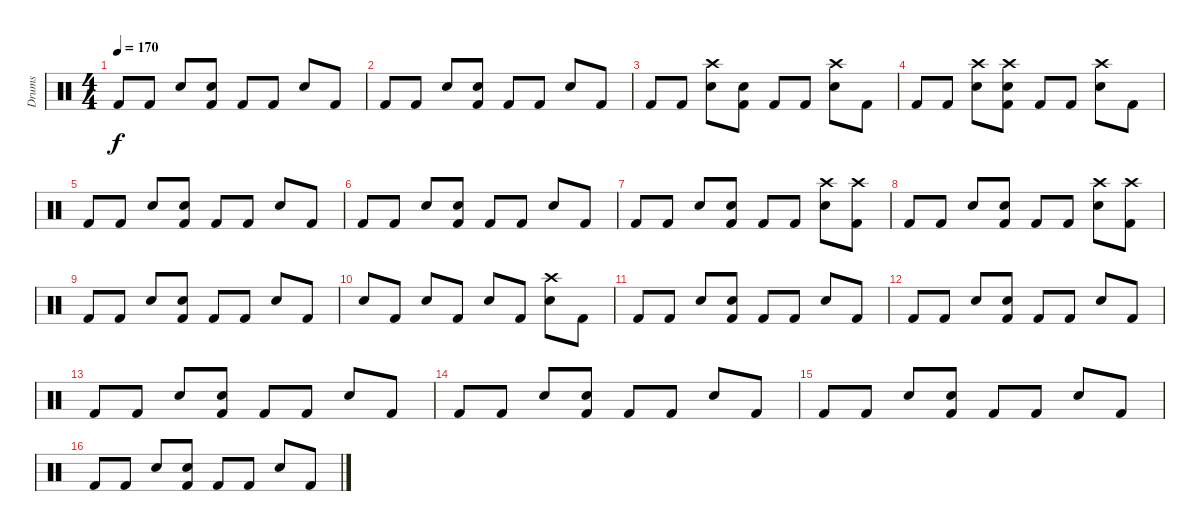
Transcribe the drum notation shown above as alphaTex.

\track ("Drums" "Drums") {instrument percussion}
\staff {score}
\articulation defaults
\ts (4 4)
\tempo 170
\clef neutral
\ks c "Kick (hit) 2".8{dy f} "Kick (hit) 2".8 "Snare (hit) 2".8
("Electric Snare (hit)" "Kick (hit) 2").8 "Kick (hit) 2".8 "Kick (hit) 2".8 "Snare (hit) 2".8 "Kick (hit) 2".8 |
"Kick (hit) 2".8 "Kick (hit) 2".8 "Snare (hit) 2".8 ("Electric Snare (hit)" "Kick (hit) 2").8 "Kick (hit) 2".8 "Kick (hit) 2".8 "Snare (hit) 2".8 "Kick (hit) 2".8 |
"Kick (hit) 2".8 "Kick (hit) 2".8 ("Snare (hit) 2" "Crash high (hit)").8 ("Electric Snare (hit)" "Kick (hit) 2").8 "Kick (hit) 2".8 "Kick (hit) 2".8 ("Snare (hit) 2" "Crash high (hit)").8 "Kick (hit) 2".8 |
"Kick (hit) 2".8 "Kick (hit) 2".8 ("Snare (hit) 2" "Crash high (hit)").8 ("Electric Snare (hit)" "Crash high (hit)" "Kick (hit) 2").8 "Kick (hit) 2".8 "Kick (hit) 2".8 ("Snare (hit) 2" "Crash high (hit)").8 "Kick (hit) 2".8 |
"Kick (hit) 2".8 "Kick (hit) 2".8 "Snare (hit) 2".8 ("Electric Snare (hit)" "Kick (hit) 2").8 "Kick (hit) 2".8 "Kick (hit) 2".8 "Snare (hit) 2".8 "Kick (hit) 2".8 |
"Kick (hit) 2".8 "Kick (hit) 2".8 "Snare (hit) 2".8 ("Electric Snare (hit)" "Kick (hit) 2").8 "Kick (hit) 2".8 "Kick (hit) 2".8 "Snare (hit) 2".8 "Kick (hit) 2".8 |
"Kick (hit) 2".8 "Kick (hit) 2".8 "Snare (hit) 2".8 ("Electric Snare (hit)" "Kick (hit) 2").8 "Kick (hit) 2".8 "Kick (hit) 2".8 ("Snare (hit) 2" "Crash high (hit)").8 ("Crash high (hit)" "Kick (hit) 2").8 |
"Kick (hit) 2".8 "Kick (hit) 2".8 "Snare (hit) 2".8 ("Electric Snare (hit)" "Kick (hit) 2").8 "Kick (hit) 2".8 "Kick (hit) 2".8 ("Snare (hit) 2" "Crash high (hit)").8 ("Crash high (hit)" "Kick (hit) 2").8 |
"Kick (hit) 2".8 "Kick (hit) 2".8 "Snare (hit) 2".8 ("Electric Snare (hit)" "Kick (hit) 2").8 "Kick (hit) 2".8 "Kick (hit) 2".8 "Snare (hit) 2".8 "Kick (hit) 2".8 |
"Snare (hit) 2".8 "Kick (hit) 2".8 "Snare (hit) 2".8 "Kick (hit) 2".8 "Snare (hit) 2".8 "Kick (hit) 2".8 ("Snare (hit) 2" "Crash high (hit)").8 "Kick (hit) 2".8 |
"Kick (hit) 2".8 "Kick (hit) 2".8 "Snare (hit) 2".8 ("Electric Snare (hit)" "Kick (hit) 2").8 "Kick (hit) 2".8 "Kick (hit) 2".8 "Snare (hit) 2".8 "Kick (hit) 2".8 |
"Kick (hit) 2".8 "Kick (hit) 2".8 "Snare (hit) 2".8 ("Electric Snare (hit)" "Kick (hit) 2").8 "Kick (hit) 2".8 "Kick (hit) 2".8 "Snare (hit) 2".8 "Kick (hit) 2".8 |
"Kick (hit) 2".8 "Kick (hit) 2".8 "Snare (hit) 2".8 ("Electric Snare (hit)" "Kick (hit) 2").8 "Kick (hit) 2".8 "Kick (hit) 2".8 "Snare (hit) 2".8 "Kick (hit) 2".8 |
"Kick (hit) 2".8 "Kick (hit) 2".8 "Snare (hit) 2".8 ("Electric Snare (hit)" "Kick (hit) 2").8 "Kick (hit) 2".8 "Kick (hit) 2".8 "Snare (hit) 2".8 "Kick (hit) 2".8 |
"Kick (hit) 2".8 "Kick (hit) 2".8 "Snare (hit) 2".8 ("Electric Snare (hit)" "Kick (hit) 2").8 "Kick (hit) 2".8 "Kick (hit) 2".8 "Snare (hit) 2".8 "Kick (hit) 2".8 |
"Kick (hit) 2".8 "Kick (hit) 2".8 "Snare (hit) 2".8 ("Electric Snare (hit)" "Kick (hit) 2").8 "Kick (hit) 2".8 "Kick (hit) 2".8 "Snare (hit) 2".8 "Kick (hit) 2".8
